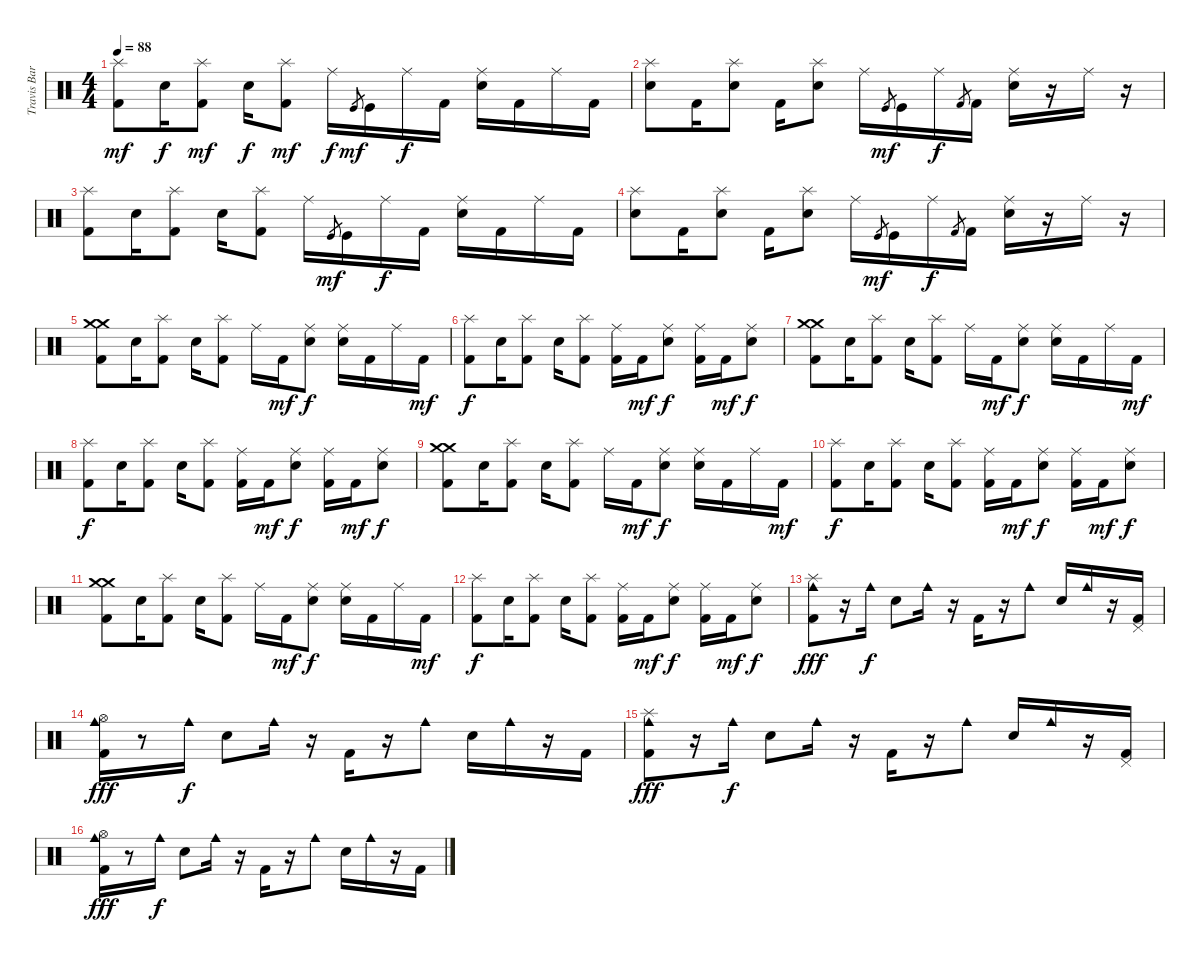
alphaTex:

\track ("Travis Barker - Drums" "Travis Bar") {instrument percussion}
\staff {score}
\articulation defaults
\ts (4 4)
\tempo 88
\clef neutral
\ks c
("Splash (hit)" "Kick (hit) 2").8{dy mf} "Electric Snare (hit)".16{dy f} ("Splash (hit)" "Kick (hit) 2").8{dy mf} "Electric Snare (hit)".16{dy f} ("Splash (hit)" "Kick (hit) 2").8{dy mf} "Ride (middle)".16{dy f} "Kick (hit)".8{gr dy mf} "Kick (hit)".16 "Ride (middle)".16{dy f} "Kick (hit) 2".16 ("Ride (middle)" "Electric Snare (hit)").16 "Kick (hit) 2".16 "Ride (middle)".16 "Kick (hit) 2".16 |
("Splash (hit)" "Electric Snare (hit)").8 "Kick (hit) 2".16 ("Splash (hit)" "Electric Snare (hit)").8 "Kick (hit) 2".16 ("Splash (hit)" "Electric Snare (hit)").8 "Ride (middle)".16 "Kick (hit)".8{gr dy mf} "Kick (hit)".16 "Ride (middle)".16{dy f} "Kick (hit) 2".8{gr} "Kick (hit) 2".16 ("Ride (middle)" "Electric Snare (hit)").16 r.16 "Ride (middle)".16 r.16 |
("Splash (hit)" "Kick (hit) 2").8 "Electric Snare (hit)".16 ("Splash (hit)" "Kick (hit) 2").8 "Electric Snare (hit)".16 ("Splash (hit)" "Kick (hit) 2").8 "Ride (middle)".16 "Kick (hit)".8{gr dy mf} "Kick (hit)".16 "Ride (middle)".16{dy f} "Kick (hit) 2".16 ("Ride (middle)" "Electric Snare (hit)").16 "Kick (hit) 2".16 "Ride (middle)".16 "Kick (hit) 2".16 |
("Splash (hit)" "Electric Snare (hit)").8 "Kick (hit) 2".16 ("Splash (hit)" "Electric Snare (hit)").8 "Kick (hit) 2".16 ("Splash (hit)" "Electric Snare (hit)").8 "Ride (middle)".16 "Kick (hit)".8{gr dy mf} "Kick (hit)".16 "Ride (middle)".16{dy f} "Kick (hit) 2".8{gr} "Kick (hit) 2".16 ("Ride (middle)" "Electric Snare (hit)").16 r.16 "Ride (middle)".16 r.16 |
("Crash medium (hit)" "Crash medium (hit)" "Kick (hit) 2").8 "Electric Snare (hit)".16 ("Splash (hit)" "Kick (hit) 2").8 "Electric Snare (hit)".16 ("Splash (hit)" "Kick (hit) 2").8 "Ride (middle)".16 "Kick (hit) 2".16{dy mf} ("Ride (middle)" "Electric Snare (hit)").8{dy f} ("Ride (middle)" "Electric Snare (hit)").16 "Kick (hit) 2".16 "Ride (middle)".16 "Kick (hit) 2".16{dy mf} |
("Splash (hit)" "Kick (hit) 2").8{dy f} "Electric Snare (hit)".16 ("Splash (hit)" "Kick (hit) 2").8 "Electric Snare (hit)".16 ("Splash (hit)" "Kick (hit) 2").8 ("Ride (middle)" "Kick (hit) 2").16 "Kick (hit) 2".16{dy mf} ("Ride (middle)" "Electric Snare (hit)").8{dy f} ("Ride (middle)" "Kick (hit) 2").16 "Kick (hit) 2".16{dy mf} ("Ride (middle)" "Electric Snare (hit)").8{dy f} |
("Crash medium (hit)" "Crash medium (hit)" "Kick (hit) 2").8 "Electric Snare (hit)".16 ("Splash (hit)" "Kick (hit) 2").8 "Electric Snare (hit)".16 ("Splash (hit)" "Kick (hit) 2").8 "Ride (middle)".16 "Kick (hit) 2".16{dy mf} ("Ride (middle)" "Electric Snare (hit)").8{dy f} ("Ride (middle)" "Electric Snare (hit)").16 "Kick (hit) 2".16 "Ride (middle)".16 "Kick (hit) 2".16{dy mf} |
("Splash (hit)" "Kick (hit) 2").8{dy f} "Electric Snare (hit)".16 ("Splash (hit)" "Kick (hit) 2").8 "Electric Snare (hit)".16 ("Splash (hit)" "Kick (hit) 2").8 ("Ride (middle)" "Kick (hit) 2").16 "Kick (hit) 2".16{dy mf} ("Ride (middle)" "Electric Snare (hit)").8{dy f} ("Ride (middle)" "Kick (hit) 2").16 "Kick (hit) 2".16{dy mf} ("Ride (middle)" "Electric Snare (hit)").8{dy f} |
("Crash medium (hit)" "Crash medium (hit)" "Kick (hit) 2").8 "Electric Snare (hit)".16 ("Splash (hit)" "Kick (hit) 2").8 "Electric Snare (hit)".16 ("Splash (hit)" "Kick (hit) 2").8 "Ride (middle)".16 "Kick (hit) 2".16{dy mf} ("Ride (middle)" "Electric Snare (hit)").8{dy f} ("Ride (middle)" "Electric Snare (hit)").16 "Kick (hit) 2".16 "Ride (middle)".16 "Kick (hit) 2".16{dy mf} |
("Splash (hit)" "Kick (hit) 2").8{dy f} "Electric Snare (hit)".16 ("Splash (hit)" "Kick (hit) 2").8 "Electric Snare (hit)".16 ("Splash (hit)" "Kick (hit) 2").8 ("Ride (middle)" "Kick (hit) 2").16 "Kick (hit) 2".16{dy mf} ("Ride (middle)" "Electric Snare (hit)").8{dy f} ("Ride (middle)" "Kick (hit) 2").16 "Kick (hit) 2".16{dy mf} ("Ride (middle)" "Electric Snare (hit)").8{dy f} |
("Crash medium (hit)" "Crash medium (hit)" "Kick (hit) 2").8 "Electric Snare (hit)".16 ("Splash (hit)" "Kick (hit) 2").8 "Electric Snare (hit)".16 ("Splash (hit)" "Kick (hit) 2").8 "Ride (middle)".16 "Kick (hit) 2".16{dy mf} ("Ride (middle)" "Electric Snare (hit)").8{dy f} ("Ride (middle)" "Electric Snare (hit)").16 "Kick (hit) 2".16 "Ride (middle)".16 "Kick (hit) 2".16{dy mf} |
("Splash (hit)" "Kick (hit) 2").8{dy f} "Electric Snare (hit)".16 ("Splash (hit)" "Kick (hit) 2").8 "Electric Snare (hit)".16 ("Splash (hit)" "Kick (hit) 2").8 ("Ride (middle)" "Kick (hit) 2").16 "Kick (hit) 2".16{dy mf} ("Ride (middle)" "Electric Snare (hit)").8{dy f} ("Ride (middle)" "Kick (hit) 2").16 "Kick (hit) 2".16{dy mf} ("Ride (middle)" "Electric Snare (hit)").8{dy f} |
("Splash (hit)" "Cowbell medium (hit)" "Kick (hit) 2").8{dy fff} r.16 "Cowbell medium (hit)".16{dy f} "Electric Snare (hit)".8 "Cowbell medium (hit)".16 r.16 "Kick (hit) 2".16 r.16 "Cowbell medium (hit)".8 "Electric Snare (hit)".16 "Cowbell medium (hit)".16 r.16 ("Pedal Hi-Hat (hit)" "Kick (hit) 2").16 |
("Hi-Hat (open)" "Cowbell medium (hit)" "Kick (hit) 2").16{dy fff} r.8 "Cowbell medium (hit)".16{dy f} "Electric Snare (hit)".8 "Cowbell medium (hit)".16 r.16 "Kick (hit) 2".16 r.16 "Cowbell medium (hit)".8 "Electric Snare (hit)".16 "Cowbell medium (hit)".16 r.16 "Kick (hit) 2".16 |
("Splash (hit)" "Cowbell medium (hit)" "Kick (hit) 2").8{dy fff} r.16 "Cowbell medium (hit)".16{dy f} "Electric Snare (hit)".8 "Cowbell medium (hit)".16 r.16 "Kick (hit) 2".16 r.16 "Cowbell medium (hit)".8 "Electric Snare (hit)".16 "Cowbell medium (hit)".16 r.16 ("Pedal Hi-Hat (hit)" "Kick (hit) 2").16 |
("Hi-Hat (open)" "Cowbell medium (hit)" "Kick (hit) 2").16{dy fff} r.8 "Cowbell medium (hit)".16{dy f} "Electric Snare (hit)".8 "Cowbell medium (hit)".16 r.16 "Kick (hit) 2".16 r.16 "Cowbell medium (hit)".8 "Electric Snare (hit)".16 "Cowbell medium (hit)".16 r.16 "Kick (hit) 2".16
